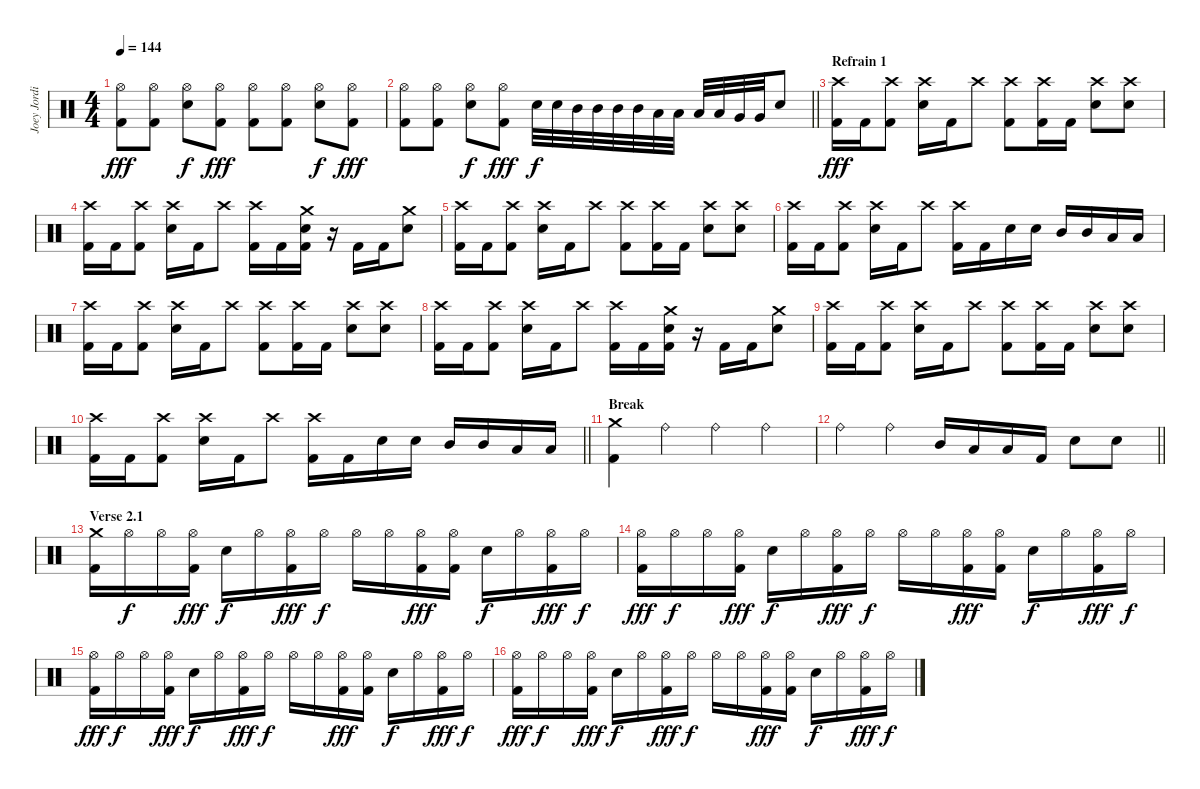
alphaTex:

\track ("Joey Jordison" "Joey Jordi") {instrument percussion}
\staff {score}
\articulation defaults
\ts (4 4)
\tempo 144
\clef neutral
\ks c
("Hi-Hat (open)" "Kick (hit) 2").8{dy fff} ("Hi-Hat (open)" "Kick (hit) 2").8 ("Hi-Hat (open)" "Electric Snare (hit)").8{dy f} ("Hi-Hat (open)" "Kick (hit) 2").8{dy fff} ("Hi-Hat (open)" "Kick (hit) 2").8 ("Hi-Hat (open)" "Kick (hit) 2").8 ("Hi-Hat (open)" "Electric Snare (hit)").8{dy f} ("Hi-Hat (open)" "Kick (hit) 2").8{dy fff} |
\barLineRight lightlight
("Hi-Hat (open)" "Kick (hit) 2").8 ("Hi-Hat (open)" "Kick (hit) 2").8 ("Hi-Hat (open)" "Electric Snare (hit)").8{dy f} ("Hi-Hat (open)" "Kick (hit) 2").8{dy fff} "Electric Snare (hit)".32{dy f} "Electric Snare (hit)".32 "Mid Tom (hit)".32 "Mid Tom (hit)".32 "Mid Tom (hit)".32 "Mid Tom (hit)".32 "Low Tom (hit)".32 "Low Tom (hit)".32 "Low Tom (hit)".32 "Low Tom (hit)".32 "Very Low Tom (hit)".32 "Very Low Tom (hit)".32 "Electric Snare (hit)".8 |
\section ("" "Refrain 1")
("Crash high (hit)" "Kick (hit) 2").16{dy fff} "Kick (hit) 2".16 ("Crash high (hit)" "Kick (hit) 2").8 ("Crash high (hit)" "Electric Snare (hit)").16 "Kick (hit) 2".16 "Crash high (hit)".8 ("Crash high (hit)" "Kick (hit) 2").8 ("Crash high (hit)" "Kick (hit) 2").16 "Kick (hit) 2".16 ("Crash high (hit)" "Electric Snare (hit)").8 ("Crash high (hit)" "Electric Snare (hit)").8 |
("Crash high (hit)" "Kick (hit) 2").16 "Kick (hit) 2".16 ("Crash high (hit)" "Kick (hit) 2").8 ("Crash high (hit)" "Electric Snare (hit)").16 "Kick (hit) 2".16 "Crash high (hit)".8 ("Crash high (hit)" "Kick (hit) 2").16 "Kick (hit) 2".16 ("Crash medium (hit)" "Electric Snare (hit)" "Kick (hit) 2").16 r.16 "Kick (hit) 2".16 "Kick (hit) 2".16 ("Crash medium (hit)" "Electric Snare (hit)").8 |
("Crash high (hit)" "Kick (hit) 2").16 "Kick (hit) 2".16 ("Crash high (hit)" "Kick (hit) 2").8 ("Crash high (hit)" "Electric Snare (hit)").16 "Kick (hit) 2".16 "Crash high (hit)".8 ("Crash high (hit)" "Kick (hit) 2").8 ("Crash high (hit)" "Kick (hit) 2").16 "Kick (hit) 2".16 ("Crash high (hit)" "Electric Snare (hit)").8 ("Crash high (hit)" "Electric Snare (hit)").8 |
("Crash high (hit)" "Kick (hit) 2").16 "Kick (hit) 2".16 ("Crash high (hit)" "Kick (hit) 2").8 ("Crash high (hit)" "Electric Snare (hit)").16 "Kick (hit) 2".16 "Crash high (hit)".8 ("Crash high (hit)" "Kick (hit) 2").16 "Kick (hit) 2".16 "Electric Snare (hit)".16 "Electric Snare (hit)".16 "Mid Tom (hit)".16 "Mid Tom (hit)".16 "Low Tom (hit)".16 "Low Tom (hit)".16 |
("Crash high (hit)" "Kick (hit) 2").16 "Kick (hit) 2".16 ("Crash high (hit)" "Kick (hit) 2").8 ("Crash high (hit)" "Electric Snare (hit)").16 "Kick (hit) 2".16 "Crash high (hit)".8 ("Crash high (hit)" "Kick (hit) 2").8 ("Crash high (hit)" "Kick (hit) 2").16 "Kick (hit) 2".16 ("Crash high (hit)" "Electric Snare (hit)").8 ("Crash high (hit)" "Electric Snare (hit)").8 |
("Crash high (hit)" "Kick (hit) 2").16 "Kick (hit) 2".16 ("Crash high (hit)" "Kick (hit) 2").8 ("Crash high (hit)" "Electric Snare (hit)").16 "Kick (hit) 2".16 "Crash high (hit)".8 ("Crash high (hit)" "Kick (hit) 2").16 "Kick (hit) 2".16 ("Crash medium (hit)" "Electric Snare (hit)" "Kick (hit) 2").16 r.16 "Kick (hit) 2".16 "Kick (hit) 2".16 ("Crash medium (hit)" "Electric Snare (hit)").8 |
("Crash high (hit)" "Kick (hit) 2").16 "Kick (hit) 2".16 ("Crash high (hit)" "Kick (hit) 2").8 ("Crash high (hit)" "Electric Snare (hit)").16 "Kick (hit) 2".16 "Crash high (hit)".8 ("Crash high (hit)" "Kick (hit) 2").8 ("Crash high (hit)" "Kick (hit) 2").16 "Kick (hit) 2".16 ("Crash high (hit)" "Electric Snare (hit)").8 ("Crash high (hit)" "Electric Snare (hit)").8 |
\barLineRight lightlight
("Crash high (hit)" "Kick (hit) 2").16 "Kick (hit) 2".16 ("Crash high (hit)" "Kick (hit) 2").8 ("Crash high (hit)" "Electric Snare (hit)").16 "Kick (hit) 2".16 "Crash high (hit)".8 ("Crash high (hit)" "Kick (hit) 2").16 "Kick (hit) 2".16 "Electric Snare (hit)".16 "Electric Snare (hit)".16 "Mid Tom (hit)".16 "Mid Tom (hit)".16 "Low Tom (hit)".16 "Low Tom (hit)".16 |
\section ("" "Break")
("Crash medium (hit)" "Kick (hit) 2").4 "Ride (bell)".4 "Ride (bell)".4 "Ride (bell)".4 |
\barLineRight lightlight "Ride (bell)".4 "Ride (bell)".4 "Mid Tom (hit)".16 "Low Tom (hit)".16 "Low Tom (hit)".16 "Kick (hit) 2".16 "Electric Snare (hit)".8 "Electric Snare (hit)".8
|
\section ("" "Verse 2.1")
("Crash medium (hit)" "Kick (hit) 2").16 "Hi-Hat (open)".16{dy f} "Hi-Hat (open)".16 ("Hi-Hat (open)" "Kick (hit) 2").16{dy fff} "Electric Snare (hit)".16{dy f} "Hi-Hat (open)".16 ("Hi-Hat (open)" "Kick (hit) 2").16{dy fff} "Hi-Hat (open)".16{dy f} "Hi-Hat (open)".16 "Hi-Hat (open)".16 ("Hi-Hat (open)" "Kick (hit) 2").16{dy fff} ("Hi-Hat (open)" "Kick (hit) 2").16 "Electric Snare (hit)".16{dy f} "Hi-Hat (open)".16 ("Hi-Hat (open)" "Kick (hit) 2").16{dy fff} "Hi-Hat (open)".16{dy f} |
("Hi-Hat (open)" "Kick (hit) 2").16{dy fff} "Hi-Hat (open)".16{dy f} "Hi-Hat (open)".16 ("Hi-Hat (open)" "Kick (hit) 2").16{dy fff} "Electric Snare (hit)".16{dy f} "Hi-Hat (open)".16 ("Hi-Hat (open)" "Kick (hit) 2").16{dy fff} "Hi-Hat (open)".16{dy f} "Hi-Hat (open)".16 "Hi-Hat (open)".16 ("Hi-Hat (open)" "Kick (hit) 2").16{dy fff} ("Hi-Hat (open)" "Kick (hit) 2").16 "Electric Snare (hit)".16{dy f} "Hi-Hat (open)".16 ("Hi-Hat (open)" "Kick (hit) 2").16{dy fff} "Hi-Hat (open)".16{dy f} |
("Hi-Hat (open)" "Kick (hit) 2").16{dy fff} "Hi-Hat (open)".16{dy f} "Hi-Hat (open)".16 ("Hi-Hat (open)" "Kick (hit) 2").16{dy fff} "Electric Snare (hit)".16{dy f} "Hi-Hat (open)".16 ("Hi-Hat (open)" "Kick (hit) 2").16{dy fff} "Hi-Hat (open)".16{dy f} "Hi-Hat (open)".16 "Hi-Hat (open)".16 ("Hi-Hat (open)" "Kick (hit) 2").16{dy fff} ("Hi-Hat (open)" "Kick (hit) 2").16 "Electric Snare (hit)".16{dy f} "Hi-Hat (open)".16 ("Hi-Hat (open)" "Kick (hit) 2").16{dy fff} "Hi-Hat (open)".16{dy f} |
("Hi-Hat (open)" "Kick (hit) 2").16{dy fff} "Hi-Hat (open)".16{dy f} "Hi-Hat (open)".16 ("Hi-Hat (open)" "Kick (hit) 2").16{dy fff} "Electric Snare (hit)".16{dy f} "Hi-Hat (open)".16 ("Hi-Hat (open)" "Kick (hit) 2").16{dy fff} "Hi-Hat (open)".16{dy f} "Hi-Hat (open)".16 "Hi-Hat (open)".16 ("Hi-Hat (open)" "Kick (hit) 2").16{dy fff} ("Hi-Hat (open)" "Kick (hit) 2").16 "Electric Snare (hit)".16{dy f} "Hi-Hat (open)".16 ("Hi-Hat (open)" "Kick (hit) 2").16{dy fff} "Hi-Hat (open)".16{dy f}
